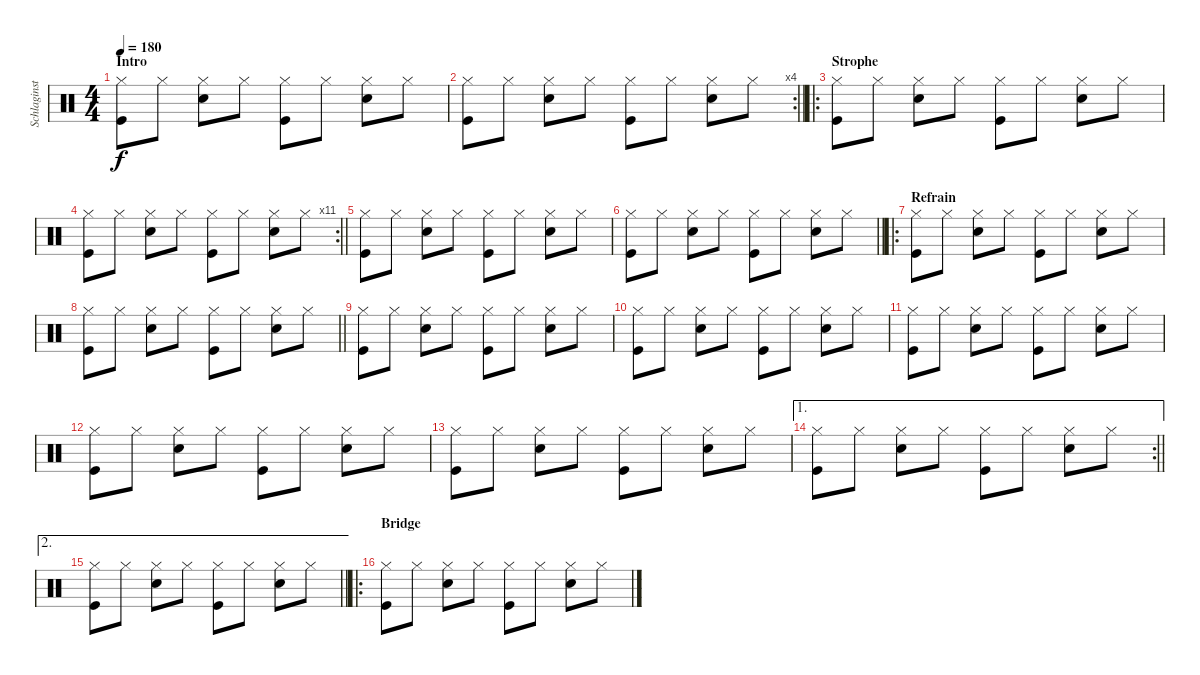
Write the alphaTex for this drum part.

\track ("Schlaginstrumente - Auswahl" "Schlaginst") {instrument percussion}
\staff {score}
\articulation defaults
\ts (4 4)
\section ("" "Intro")
\tempo 180
\clef neutral
\ks c
("Hi-Hat (closed)" "Kick (hit)").8{dy f} "Hi-Hat (closed)".8 ("Hi-Hat (closed)" "Snare (hit) 2").8 "Hi-Hat (closed)".8 ("Hi-Hat (closed)" "Kick (hit)").8 "Hi-Hat (closed)".8 ("Hi-Hat (closed)" "Snare (hit) 2").8 "Hi-Hat (closed)".8 |
\rc 4
\barLineRight lightlight
("Hi-Hat (closed)" "Kick (hit)").8 "Hi-Hat (closed)".8 ("Hi-Hat (closed)" "Snare (hit) 2").8 "Hi-Hat (closed)".8 ("Hi-Hat (closed)" "Kick (hit)").8 "Hi-Hat (closed)".8 ("Hi-Hat (closed)" "Snare (hit) 2").8 "Hi-Hat (closed)".8 |
\ro
\section ("" "Strophe")
("Hi-Hat (closed)" "Kick (hit)").8 "Hi-Hat (closed)".8 ("Hi-Hat (closed)" "Snare (hit) 2").8 "Hi-Hat (closed)".8 ("Hi-Hat (closed)" "Kick (hit)").8 "Hi-Hat (closed)".8 ("Hi-Hat (closed)" "Snare (hit) 2").8 "Hi-Hat (closed)".8 |
\rc 11
\barLineRight lightlight
("Hi-Hat (closed)" "Kick (hit)").8 "Hi-Hat (closed)".8 ("Hi-Hat (closed)" "Snare (hit) 2").8 "Hi-Hat (closed)".8 ("Hi-Hat (closed)" "Kick (hit)").8 "Hi-Hat (closed)".8 ("Hi-Hat (closed)" "Snare (hit) 2").8 "Hi-Hat (closed)".8 |
("Hi-Hat (closed)" "Kick (hit)").8 "Hi-Hat (closed)".8 ("Hi-Hat (closed)" "Snare (hit) 2").8 "Hi-Hat (closed)".8 ("Hi-Hat (closed)" "Kick (hit)").8 "Hi-Hat (closed)".8 ("Hi-Hat (closed)" "Snare (hit) 2").8 "Hi-Hat (closed)".8 |
\barLineRight lightlight
("Hi-Hat (closed)" "Kick (hit)").8 "Hi-Hat (closed)".8 ("Hi-Hat (closed)" "Snare (hit) 2").8 "Hi-Hat (closed)".8 ("Hi-Hat (closed)" "Kick (hit)").8 "Hi-Hat (closed)".8 ("Hi-Hat (closed)" "Snare (hit) 2").8 "Hi-Hat (closed)".8 |
\ro
\section ("" "Refrain")
("Hi-Hat (closed)" "Kick (hit)").8 "Hi-Hat (closed)".8 ("Hi-Hat (closed)" "Snare (hit) 2").8 "Hi-Hat (closed)".8 ("Hi-Hat (closed)" "Kick (hit)").8 "Hi-Hat (closed)".8 ("Hi-Hat (closed)" "Snare (hit) 2").8 "Hi-Hat (closed)".8 |
\barLineRight lightlight
("Hi-Hat (closed)" "Kick (hit)").8 "Hi-Hat (closed)".8 ("Hi-Hat (closed)" "Snare (hit) 2").8 "Hi-Hat (closed)".8 ("Hi-Hat (closed)" "Kick (hit)").8 "Hi-Hat (closed)".8 ("Hi-Hat (closed)" "Snare (hit) 2").8 "Hi-Hat (closed)".8 |
("Hi-Hat (closed)" "Kick (hit)").8 "Hi-Hat (closed)".8 ("Hi-Hat (closed)" "Snare (hit) 2").8 "Hi-Hat (closed)".8 ("Hi-Hat (closed)" "Kick (hit)").8 "Hi-Hat (closed)".8 ("Hi-Hat (closed)" "Snare (hit) 2").8 "Hi-Hat (closed)".8 |
("Hi-Hat (closed)" "Kick (hit)").8 "Hi-Hat (closed)".8 ("Hi-Hat (closed)" "Snare (hit) 2").8 "Hi-Hat (closed)".8 ("Hi-Hat (closed)" "Kick (hit)").8 "Hi-Hat (closed)".8 ("Hi-Hat (closed)" "Snare (hit) 2").8 "Hi-Hat (closed)".8 |
("Hi-Hat (closed)" "Kick (hit)").8 "Hi-Hat (closed)".8 ("Hi-Hat (closed)" "Snare (hit) 2").8 "Hi-Hat (closed)".8 ("Hi-Hat (closed)" "Kick (hit)").8 "Hi-Hat (closed)".8 ("Hi-Hat (closed)" "Snare (hit) 2").8 "Hi-Hat (closed)".8 |
("Hi-Hat (closed)" "Kick (hit)").8 "Hi-Hat (closed)".8 ("Hi-Hat (closed)" "Snare (hit) 2").8 "Hi-Hat (closed)".8 ("Hi-Hat (closed)" "Kick (hit)").8 "Hi-Hat (closed)".8 ("Hi-Hat (closed)" "Snare (hit) 2").8 "Hi-Hat (closed)".8 |
("Hi-Hat (closed)" "Kick (hit)").8 "Hi-Hat (closed)".8 ("Hi-Hat (closed)" "Snare (hit) 2").8 "Hi-Hat (closed)".8 ("Hi-Hat (closed)" "Kick (hit)").8 "Hi-Hat (closed)".8 ("Hi-Hat (closed)" "Snare (hit) 2").8 "Hi-Hat (closed)".8 |
\ae 1
\rc 2
\barLineRight lightlight
("Hi-Hat (closed)" "Kick (hit)").8 "Hi-Hat (closed)".8 ("Hi-Hat (closed)" "Snare (hit) 2").8 "Hi-Hat (closed)".8 ("Hi-Hat (closed)" "Kick (hit)").8 "Hi-Hat (closed)".8 ("Hi-Hat (closed)" "Snare (hit) 2").8 "Hi-Hat (closed)".8 |
\ae 2
\barLineRight lightlight
("Hi-Hat (closed)" "Kick (hit)").8 "Hi-Hat (closed)".8 ("Hi-Hat (closed)" "Snare (hit) 2").8 "Hi-Hat (closed)".8 ("Hi-Hat (closed)" "Kick (hit)").8 "Hi-Hat (closed)".8 ("Hi-Hat (closed)" "Snare (hit) 2").8 "Hi-Hat (closed)".8 |
\ro
\section ("" "Bridge")
("Hi-Hat (closed)" "Kick (hit)").8 "Hi-Hat (closed)".8 ("Hi-Hat (closed)" "Snare (hit) 2").8 "Hi-Hat (closed)".8 ("Hi-Hat (closed)" "Kick (hit)").8 "Hi-Hat (closed)".8 ("Hi-Hat (closed)" "Snare (hit) 2").8 "Hi-Hat (closed)".8
